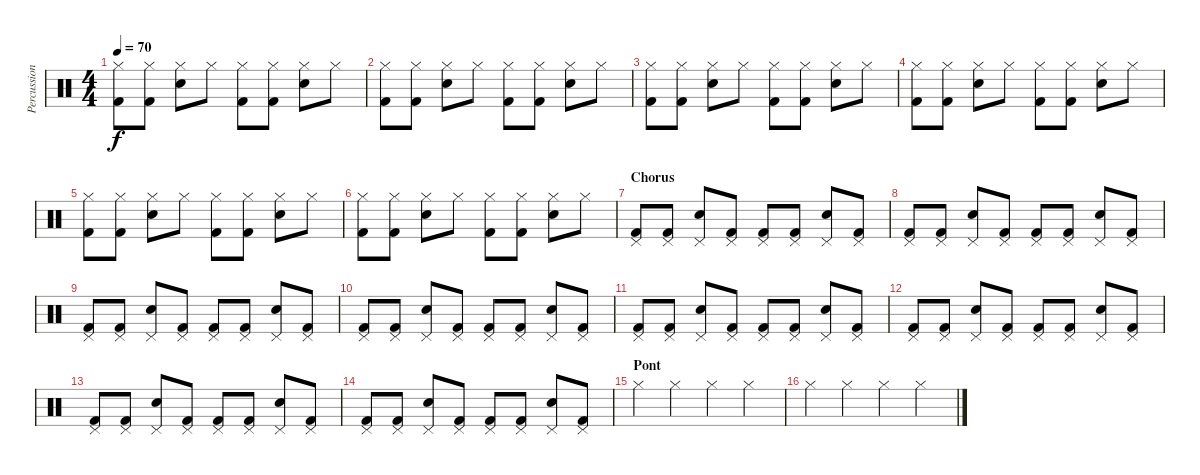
\track ("Percussions" "Percussion") {instrument percussion}
\staff {score}
\articulation defaults
\ts (4 4)
\tempo 70
\clef neutral
\ks c
("Kick (hit) 2" "Hi-Hat (closed)").8{dy f} ("Kick (hit) 2" "Hi-Hat (closed)").8 ("Electric Snare (hit)" "Hi-Hat (closed)").8 "Hi-Hat (closed)".8 ("Kick (hit) 2" "Hi-Hat (closed)").8 ("Kick (hit) 2" "Hi-Hat (closed)").8 ("Snare (hit) 2" "Hi-Hat (closed)").8 "Hi-Hat (closed)".8 |
("Kick (hit) 2" "Hi-Hat (closed)").8 ("Kick (hit) 2" "Hi-Hat (closed)").8 ("Electric Snare (hit)" "Hi-Hat (closed)").8 "Hi-Hat (closed)".8 ("Kick (hit) 2" "Hi-Hat (closed)").8 ("Kick (hit) 2" "Hi-Hat (closed)").8 ("Snare (hit) 2" "Hi-Hat (closed)").8 "Hi-Hat (closed)".8 |
("Kick (hit) 2" "Hi-Hat (closed)").8 ("Kick (hit) 2" "Hi-Hat (closed)").8 ("Electric Snare (hit)" "Hi-Hat (closed)").8 "Hi-Hat (closed)".8 ("Kick (hit) 2" "Hi-Hat (closed)").8 ("Kick (hit) 2" "Hi-Hat (closed)").8 ("Snare (hit) 2" "Hi-Hat (closed)").8 "Hi-Hat (closed)".8 |
("Kick (hit) 2" "Hi-Hat (closed)").8 ("Kick (hit) 2" "Hi-Hat (closed)").8 ("Electric Snare (hit)" "Hi-Hat (closed)").8 "Hi-Hat (closed)".8 ("Kick (hit) 2" "Hi-Hat (closed)").8 ("Kick (hit) 2" "Hi-Hat (closed)").8 ("Snare (hit) 2" "Hi-Hat (closed)").8 "Hi-Hat (closed)".8 |
("Kick (hit) 2" "Hi-Hat (closed)").8 ("Kick (hit) 2" "Hi-Hat (closed)").8 ("Electric Snare (hit)" "Hi-Hat (closed)").8 "Hi-Hat (closed)".8 ("Kick (hit) 2" "Hi-Hat (closed)").8 ("Kick (hit) 2" "Hi-Hat (closed)").8 ("Snare (hit) 2" "Hi-Hat (closed)").8 "Hi-Hat (closed)".8 |
("Kick (hit) 2" "Hi-Hat (closed)").8 ("Kick (hit) 2" "Hi-Hat (closed)").8 ("Electric Snare (hit)" "Hi-Hat (closed)").8 "Hi-Hat (closed)".8 ("Kick (hit) 2" "Hi-Hat (closed)").8 ("Kick (hit) 2" "Hi-Hat (closed)").8 ("Snare (hit) 2" "Hi-Hat (closed)").8 "Hi-Hat (closed)".8 |
\section ("" "Chorus")
("Kick (hit) 2" "Pedal Hi-Hat (hit)").8 ("Kick (hit) 2" "Pedal Hi-Hat (hit)").8 ("Snare (hit) 2" "Pedal Hi-Hat (hit)").8 ("Kick (hit) 2" "Pedal Hi-Hat (hit)").8 ("Kick (hit) 2" "Pedal Hi-Hat (hit)").8 ("Kick (hit) 2" "Pedal Hi-Hat (hit)").8 ("Pedal Hi-Hat (hit)" "Snare (hit) 2").8 ("Kick (hit) 2" "Pedal Hi-Hat (hit)").8 |
("Kick (hit) 2" "Pedal Hi-Hat (hit)").8 ("Kick (hit) 2" "Pedal Hi-Hat (hit)").8 ("Snare (hit) 2" "Pedal Hi-Hat (hit)").8 ("Kick (hit) 2" "Pedal Hi-Hat (hit)").8 ("Kick (hit) 2" "Pedal Hi-Hat (hit)").8 ("Kick (hit) 2" "Pedal Hi-Hat (hit)").8 ("Pedal Hi-Hat (hit)" "Snare (hit) 2").8 ("Kick (hit) 2" "Pedal Hi-Hat (hit)").8 |
("Kick (hit) 2" "Pedal Hi-Hat (hit)").8 ("Kick (hit) 2" "Pedal Hi-Hat (hit)").8 ("Snare (hit) 2" "Pedal Hi-Hat (hit)").8 ("Kick (hit) 2" "Pedal Hi-Hat (hit)").8 ("Kick (hit) 2" "Pedal Hi-Hat (hit)").8 ("Kick (hit) 2" "Pedal Hi-Hat (hit)").8 ("Pedal Hi-Hat (hit)" "Snare (hit) 2").8 ("Kick (hit) 2" "Pedal Hi-Hat (hit)").8 |
("Kick (hit) 2" "Pedal Hi-Hat (hit)").8 ("Kick (hit) 2" "Pedal Hi-Hat (hit)").8 ("Snare (hit) 2" "Pedal Hi-Hat (hit)").8 ("Kick (hit) 2" "Pedal Hi-Hat (hit)").8 ("Kick (hit) 2" "Pedal Hi-Hat (hit)").8 ("Kick (hit) 2" "Pedal Hi-Hat (hit)").8 ("Pedal Hi-Hat (hit)" "Snare (hit) 2").8 ("Kick (hit) 2" "Pedal Hi-Hat (hit)").8 |
("Kick (hit) 2" "Pedal Hi-Hat (hit)").8 ("Kick (hit) 2" "Pedal Hi-Hat (hit)").8 ("Snare (hit) 2" "Pedal Hi-Hat (hit)").8 ("Kick (hit) 2" "Pedal Hi-Hat (hit)").8 ("Kick (hit) 2" "Pedal Hi-Hat (hit)").8 ("Kick (hit) 2" "Pedal Hi-Hat (hit)").8 ("Pedal Hi-Hat (hit)" "Snare (hit) 2").8 ("Kick (hit) 2" "Pedal Hi-Hat (hit)").8 |
("Kick (hit) 2" "Pedal Hi-Hat (hit)").8 ("Kick (hit) 2" "Pedal Hi-Hat (hit)").8 ("Snare (hit) 2" "Pedal Hi-Hat (hit)").8 ("Kick (hit) 2" "Pedal Hi-Hat (hit)").8 ("Kick (hit) 2" "Pedal Hi-Hat (hit)").8 ("Kick (hit) 2" "Pedal Hi-Hat (hit)").8 ("Pedal Hi-Hat (hit)" "Snare (hit) 2").8 ("Kick (hit) 2" "Pedal Hi-Hat (hit)").8 |
("Kick (hit) 2" "Pedal Hi-Hat (hit)").8 ("Kick (hit) 2" "Pedal Hi-Hat (hit)").8 ("Snare (hit) 2" "Pedal Hi-Hat (hit)").8 ("Kick (hit) 2" "Pedal Hi-Hat (hit)").8 ("Kick (hit) 2" "Pedal Hi-Hat (hit)").8 ("Kick (hit) 2" "Pedal Hi-Hat (hit)").8 ("Pedal Hi-Hat (hit)" "Snare (hit) 2").8 ("Kick (hit) 2" "Pedal Hi-Hat (hit)").8 |
("Kick (hit) 2" "Pedal Hi-Hat (hit)").8 ("Kick (hit) 2" "Pedal Hi-Hat (hit)").8 ("Snare (hit) 2" "Pedal Hi-Hat (hit)").8 ("Kick (hit) 2" "Pedal Hi-Hat (hit)").8 ("Kick (hit) 2" "Pedal Hi-Hat (hit)").8 ("Kick (hit) 2" "Pedal Hi-Hat (hit)").8 ("Pedal Hi-Hat (hit)" "Snare (hit) 2").8 ("Kick (hit) 2" "Pedal Hi-Hat (hit)").8 |
\section ("" "Pont")
"Hi-Hat (closed)".4 "Hi-Hat (closed)".4 "Hi-Hat (closed)".4 "Hi-Hat (closed)".4 |
"Hi-Hat (closed)".4 "Hi-Hat (closed)".4 "Hi-Hat (closed)".4 "Hi-Hat (closed)".4
